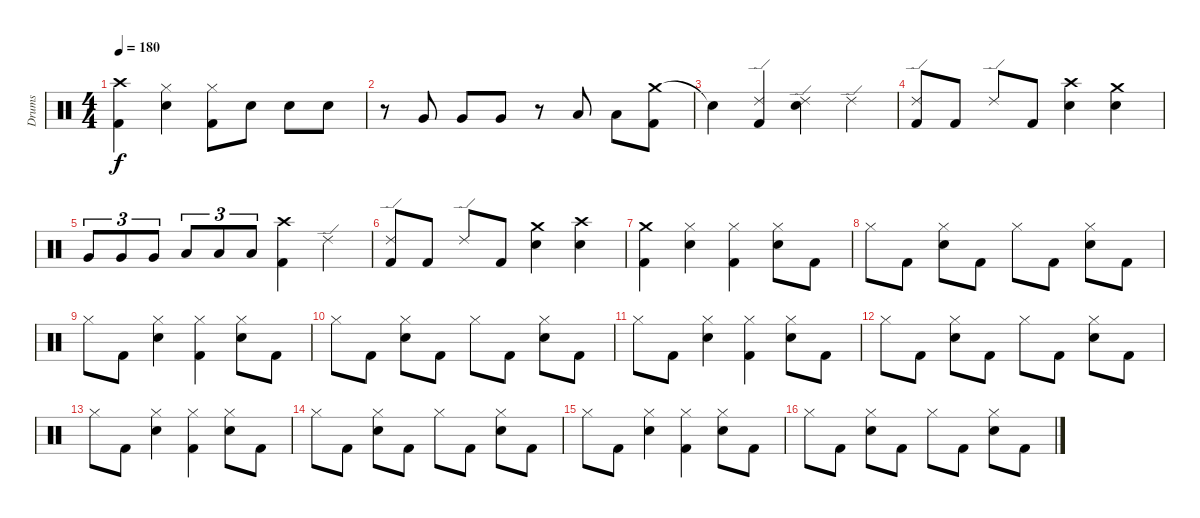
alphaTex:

\track ("Drums" "Drums") {instrument percussion}
\staff {score}
\articulation defaults
\ts (4 4)
\tempo 180
\clef neutral
\ks c
("Crash high (hit)" "Kick (hit) 2").4{dy f} ("Hi-Hat (closed)" "Electric Snare (hit)").4 ("Hi-Hat (closed)" "Kick (hit) 2").8 "Electric Snare (hit)".8 "Electric Snare (hit)".8 "Electric Snare (hit)".8 |
r.8 "Very Low Tom (hit)".8 "Very Low Tom (hit)".8 "Very Low Tom (hit)".8 r.8 "Low Floor Tom (hit)".8 "Low Floor Tom (hit)".8 ("Crash medium (hit)" "Kick (hit) 2").8 |
"Snare (hit)"{t}.4 ("Ride (edge) 2" "Kick (hit) 2").4 ("Ride (edge) 2" "Electric Snare (hit)").4 "Ride (edge) 2".4 |
("Ride (edge) 2" "Kick (hit) 2").8 "Kick (hit) 2".8 "Ride (edge) 2".8 "Kick (hit) 2".8 ("Crash high (hit)" "Electric Snare (hit)").4 ("Crash medium (hit)" "Electric Snare (hit)").4 |
"Very Low Tom (hit)".8{tu (3 2)} "Very Low Tom (hit)".8{tu (3 2)} "Very Low Tom (hit)".8{tu (3 2)} "Low Floor Tom (hit)".8{tu (3 2)} "Low Floor Tom (hit)".8{tu (3 2)} "Low Floor Tom (hit)".8{tu (3 2)} ("Crash high (hit)" "Kick (hit) 2").4 "Ride (edge) 2".4 |
("Ride (edge) 2" "Kick (hit) 2").8 "Kick (hit) 2".8 "Ride (edge) 2".8 "Kick (hit) 2".8 ("Crash medium (hit)" "Electric Snare (hit)").4 ("Crash high (hit)" "Electric Snare (hit)").4 |
("Crash medium (hit)" "Kick (hit) 2").4 ("Hi-Hat (closed)" "Electric Snare (hit)").4 ("Hi-Hat (closed)" "Kick (hit) 2").4 ("Hi-Hat (closed)" "Electric Snare (hit)").8 "Kick (hit) 2".8 |
"Hi-Hat (closed)".8 "Kick (hit) 2".8 ("Hi-Hat (closed)" "Electric Snare (hit)").8 "Kick (hit) 2".8 "Hi-Hat (closed)".8 "Kick (hit) 2".8 ("Hi-Hat (closed)" "Electric Snare (hit)").8 "Kick (hit) 2".8 |
"Hi-Hat (closed)".8 "Kick (hit) 2".8 ("Hi-Hat (closed)" "Electric Snare (hit)").4 ("Hi-Hat (closed)" "Kick (hit) 2").4 ("Hi-Hat (closed)" "Electric Snare (hit)").8 "Kick (hit) 2".8 |
"Hi-Hat (closed)".8 "Kick (hit) 2".8 ("Hi-Hat (closed)" "Electric Snare (hit)").8 "Kick (hit) 2".8 "Hi-Hat (closed)".8 "Kick (hit) 2".8 ("Hi-Hat (closed)" "Electric Snare (hit)").8 "Kick (hit) 2".8 |
"Hi-Hat (closed)".8 "Kick (hit) 2".8 ("Hi-Hat (closed)" "Electric Snare (hit)").4 ("Hi-Hat (closed)" "Kick (hit) 2").4 ("Hi-Hat (closed)" "Electric Snare (hit)").8 "Kick (hit) 2".8 |
"Hi-Hat (closed)".8 "Kick (hit) 2".8 ("Hi-Hat (closed)" "Electric Snare (hit)").8 "Kick (hit) 2".8 "Hi-Hat (closed)".8 "Kick (hit) 2".8 ("Hi-Hat (closed)" "Electric Snare (hit)").8 "Kick (hit) 2".8 |
"Hi-Hat (closed)".8 "Kick (hit) 2".8 ("Hi-Hat (closed)" "Electric Snare (hit)").4 ("Hi-Hat (closed)" "Kick (hit) 2").4 ("Hi-Hat (closed)" "Electric Snare (hit)").8 "Kick (hit) 2".8 |
"Hi-Hat (closed)".8 "Kick (hit) 2".8 ("Hi-Hat (closed)" "Electric Snare (hit)").8 "Kick (hit) 2".8 "Hi-Hat (closed)".8 "Kick (hit) 2".8 ("Hi-Hat (closed)" "Electric Snare (hit)").8 "Kick (hit) 2".8 |
"Hi-Hat (closed)".8 "Kick (hit) 2".8 ("Hi-Hat (closed)" "Electric Snare (hit)").4 ("Hi-Hat (closed)" "Kick (hit) 2").4 ("Hi-Hat (closed)" "Electric Snare (hit)").8 "Kick (hit) 2".8 |
"Hi-Hat (closed)".8 "Kick (hit) 2".8 ("Hi-Hat (closed)" "Electric Snare (hit)").8 "Kick (hit) 2".8 "Hi-Hat (closed)".8 "Kick (hit) 2".8 ("Hi-Hat (closed)" "Electric Snare (hit)").8 "Kick (hit) 2".8
